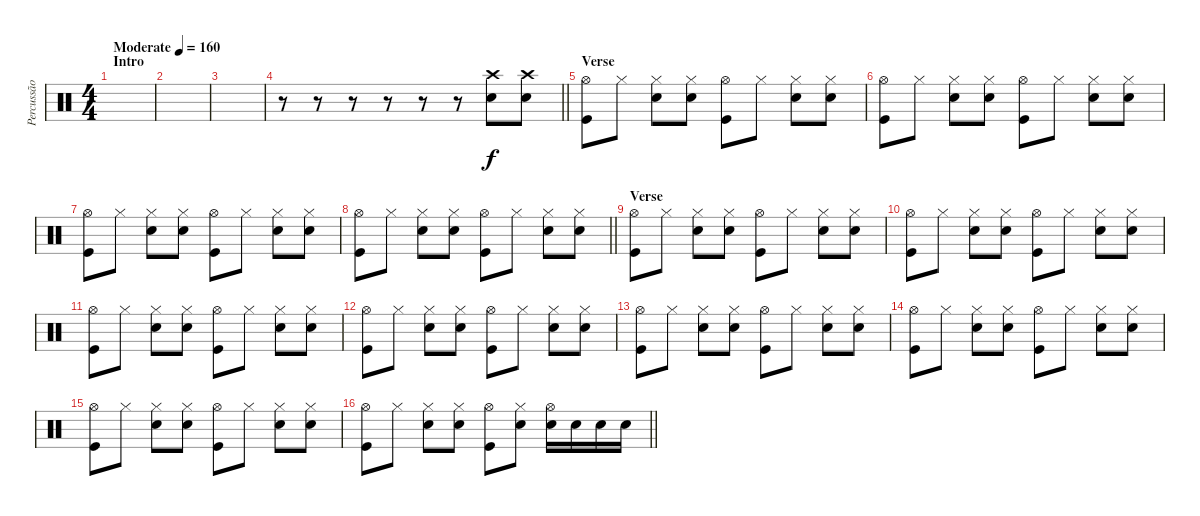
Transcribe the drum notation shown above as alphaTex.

\track ("Percussão" "Percussão") {instrument percussion}
\staff {score}
\articulation defaults
\ts (4 4)
\section ("" "Intro")
\tempo (160 "Moderate")
\clef neutral
\ks c
|
|
|
\barLineRight lightlight
r.8 r.8 r.8 r.8 r.8 r.8 ("Crash high (hit)" "Snare (hit) 2").8 ("Crash high (hit)" "Snare (hit) 2").8 |
\section ("" "Verse")
("Hi-Hat (open)" "Kick (hit)").8 "Hi-Hat (closed)".8 ("Hi-Hat (closed)" "Snare (hit) 2").8 ("Hi-Hat (closed)" "Snare (hit) 2").8 ("Hi-Hat (open)" "Kick (hit)").8 "Hi-Hat (closed)".8 ("Hi-Hat (closed)" "Snare (hit) 2").8 ("Hi-Hat (closed)" "Snare (hit) 2").8 |
("Hi-Hat (open)" "Kick (hit)").8 "Hi-Hat (closed)".8 ("Hi-Hat (closed)" "Snare (hit) 2").8 ("Hi-Hat (closed)" "Snare (hit) 2").8 ("Hi-Hat (open)" "Kick (hit)").8 "Hi-Hat (closed)".8 ("Hi-Hat (closed)" "Snare (hit) 2").8 ("Hi-Hat (closed)" "Snare (hit) 2").8 |
("Hi-Hat (open)" "Kick (hit)").8 "Hi-Hat (closed)".8 ("Hi-Hat (closed)" "Snare (hit) 2").8 ("Hi-Hat (closed)" "Snare (hit) 2").8 ("Hi-Hat (open)" "Kick (hit)").8 "Hi-Hat (closed)".8 ("Hi-Hat (closed)" "Snare (hit) 2").8 ("Hi-Hat (closed)" "Snare (hit) 2").8 |
\barLineRight lightlight
("Hi-Hat (open)" "Kick (hit)").8 "Hi-Hat (closed)".8 ("Hi-Hat (closed)" "Snare (hit) 2").8 ("Hi-Hat (closed)" "Snare (hit) 2").8 ("Hi-Hat (open)" "Kick (hit)").8 "Hi-Hat (closed)".8 ("Hi-Hat (closed)" "Snare (hit) 2").8 ("Hi-Hat (closed)" "Snare (hit) 2").8 |
\section ("" "Verse")
("Hi-Hat (open)" "Kick (hit)").8 "Hi-Hat (closed)".8 ("Hi-Hat (closed)" "Snare (hit) 2").8 ("Hi-Hat (closed)" "Snare (hit) 2").8 ("Hi-Hat (open)" "Kick (hit)").8 "Hi-Hat (closed)".8 ("Hi-Hat (closed)" "Snare (hit) 2").8 ("Hi-Hat (closed)" "Snare (hit) 2").8 |
("Hi-Hat (open)" "Kick (hit)").8 "Hi-Hat (closed)".8 ("Hi-Hat (closed)" "Snare (hit) 2").8 ("Hi-Hat (closed)" "Snare (hit) 2").8 ("Hi-Hat (open)" "Kick (hit)").8 "Hi-Hat (closed)".8 ("Hi-Hat (closed)" "Snare (hit) 2").8 ("Hi-Hat (closed)" "Snare (hit) 2").8 |
("Hi-Hat (open)" "Kick (hit)").8 "Hi-Hat (closed)".8 ("Hi-Hat (closed)" "Snare (hit) 2").8 ("Hi-Hat (closed)" "Snare (hit) 2").8 ("Hi-Hat (open)" "Kick (hit)").8 "Hi-Hat (closed)".8 ("Hi-Hat (closed)" "Snare (hit) 2").8 ("Hi-Hat (closed)" "Snare (hit) 2").8 |
("Hi-Hat (open)" "Kick (hit)").8 "Hi-Hat (closed)".8 ("Hi-Hat (closed)" "Snare (hit) 2").8 ("Hi-Hat (closed)" "Snare (hit) 2").8 ("Hi-Hat (open)" "Kick (hit)").8 "Hi-Hat (closed)".8 ("Hi-Hat (closed)" "Snare (hit) 2").8 ("Hi-Hat (closed)" "Snare (hit) 2").8 |
("Hi-Hat (open)" "Kick (hit)").8 "Hi-Hat (closed)".8 ("Hi-Hat (closed)" "Snare (hit) 2").8 ("Hi-Hat (closed)" "Snare (hit) 2").8 ("Hi-Hat (open)" "Kick (hit)").8 "Hi-Hat (closed)".8 ("Hi-Hat (closed)" "Snare (hit) 2").8 ("Hi-Hat (closed)" "Snare (hit) 2").8 |
("Hi-Hat (open)" "Kick (hit)").8 "Hi-Hat (closed)".8 ("Hi-Hat (closed)" "Snare (hit) 2").8 ("Hi-Hat (closed)" "Snare (hit) 2").8 ("Hi-Hat (open)" "Kick (hit)").8 "Hi-Hat (closed)".8 ("Hi-Hat (closed)" "Snare (hit) 2").8 ("Hi-Hat (closed)" "Snare (hit) 2").8 |
("Hi-Hat (open)" "Kick (hit)").8 "Hi-Hat (closed)".8 ("Hi-Hat (closed)" "Snare (hit) 2").8 ("Hi-Hat (closed)" "Snare (hit) 2").8 ("Hi-Hat (open)" "Kick (hit)").8 "Hi-Hat (closed)".8 ("Hi-Hat (closed)" "Snare (hit) 2").8 ("Hi-Hat (closed)" "Snare (hit) 2").8 |
\barLineRight lightlight
("Hi-Hat (open)" "Kick (hit)").8 "Hi-Hat (closed)".8 ("Hi-Hat (closed)" "Snare (hit) 2").8 ("Hi-Hat (closed)" "Snare (hit) 2").8 ("Hi-Hat (open)" "Kick (hit)").8 ("Hi-Hat (closed)" "Snare (hit) 2").8 ("Hi-Hat (open)" "Snare (hit) 2").16 "Snare (hit) 2".16 "Snare (hit) 2".16 "Snare (hit) 2".16
